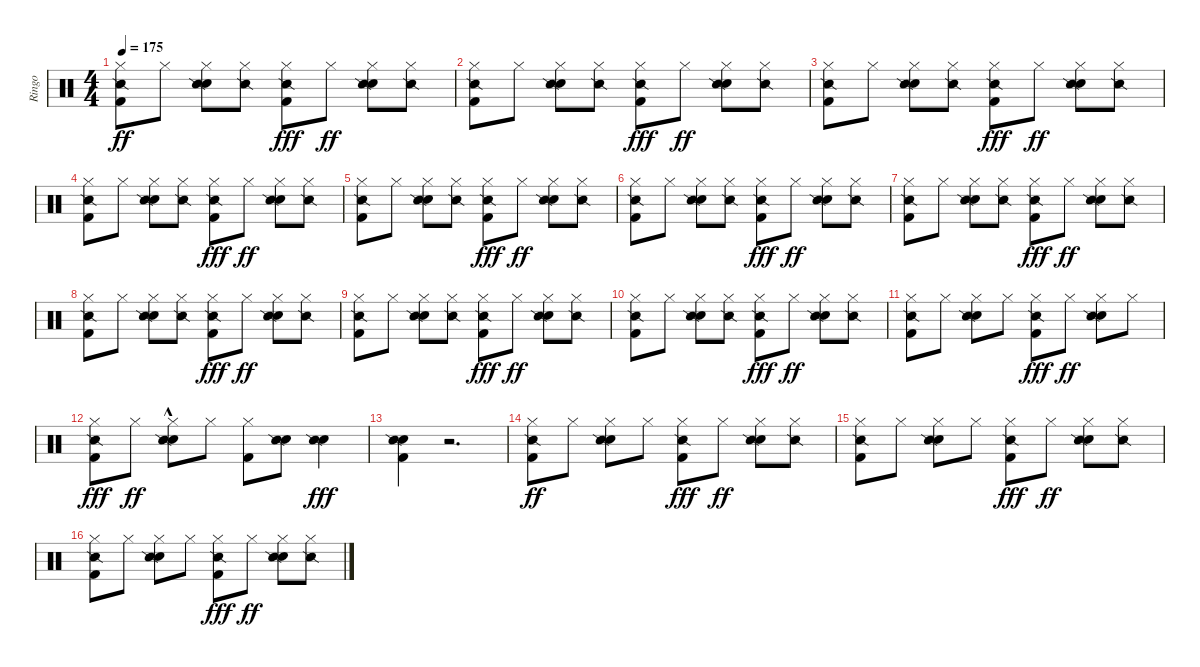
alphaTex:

\track ("Ringo" "Ringo") {instrument percussion}
\staff {score}
\articulation defaults
\ts (4 4)
\tempo 175
\clef neutral
\ks c
("Hi-Hat (closed)" "Snare (side stick) 2" "Kick (hit) 2").8{dy ff} "Hi-Hat (closed)".8 ("Hi-Hat (closed)" "Electric Snare (hit)" "Snare (side stick) 2").8 ("Hi-Hat (closed)" "Snare (side stick) 2").8 ("Hi-Hat (closed)" "Snare (side stick) 2" "Kick (hit) 2").8{dy fff} "Hi-Hat (closed)".8{dy ff} ("Hi-Hat (closed)" "Electric Snare (hit)" "Snare (side stick) 2").8 ("Hi-Hat (closed)" "Snare (side stick) 2").8 |
("Hi-Hat (closed)" "Snare (side stick) 2" "Kick (hit) 2").8 "Hi-Hat (closed)".8 ("Hi-Hat (closed)" "Electric Snare (hit)" "Snare (side stick) 2").8 ("Hi-Hat (closed)" "Snare (side stick) 2").8 ("Hi-Hat (closed)" "Snare (side stick) 2" "Kick (hit) 2").8{dy fff} "Hi-Hat (closed)".8{dy ff} ("Hi-Hat (closed)" "Electric Snare (hit)" "Snare (side stick) 2").8 ("Hi-Hat (closed)" "Snare (side stick) 2").8 |
("Hi-Hat (closed)" "Snare (side stick) 2" "Kick (hit) 2").8 "Hi-Hat (closed)".8 ("Hi-Hat (closed)" "Electric Snare (hit)" "Snare (side stick) 2").8 ("Hi-Hat (closed)" "Snare (side stick) 2").8 ("Hi-Hat (closed)" "Snare (side stick) 2" "Kick (hit) 2").8{dy fff} "Hi-Hat (closed)".8{dy ff} ("Hi-Hat (closed)" "Electric Snare (hit)" "Snare (side stick) 2").8 ("Hi-Hat (closed)" "Snare (side stick) 2").8 |
("Hi-Hat (closed)" "Snare (side stick) 2" "Kick (hit) 2").8 "Hi-Hat (closed)".8 ("Hi-Hat (closed)" "Electric Snare (hit)" "Snare (side stick) 2").8 ("Hi-Hat (closed)" "Snare (side stick) 2").8 ("Hi-Hat (closed)" "Snare (side stick) 2" "Kick (hit) 2").8{dy fff} "Hi-Hat (closed)".8{dy ff} ("Hi-Hat (closed)" "Electric Snare (hit)" "Snare (side stick) 2").8 ("Hi-Hat (closed)" "Snare (side stick) 2").8 |
("Hi-Hat (closed)" "Snare (side stick) 2" "Kick (hit) 2").8 "Hi-Hat (closed)".8 ("Hi-Hat (closed)" "Electric Snare (hit)" "Snare (side stick) 2").8 ("Hi-Hat (closed)" "Snare (side stick) 2").8 ("Hi-Hat (closed)" "Snare (side stick) 2" "Kick (hit) 2").8{dy fff} "Hi-Hat (closed)".8{dy ff} ("Hi-Hat (closed)" "Electric Snare (hit)" "Snare (side stick) 2").8 ("Hi-Hat (closed)" "Snare (side stick) 2").8 |
("Hi-Hat (closed)" "Snare (side stick) 2" "Kick (hit) 2").8 "Hi-Hat (closed)".8 ("Hi-Hat (closed)" "Electric Snare (hit)" "Snare (side stick) 2").8 ("Hi-Hat (closed)" "Snare (side stick) 2").8 ("Hi-Hat (closed)" "Snare (side stick) 2" "Kick (hit) 2").8{dy fff} "Hi-Hat (closed)".8{dy ff} ("Hi-Hat (closed)" "Electric Snare (hit)" "Snare (side stick) 2").8 ("Hi-Hat (closed)" "Snare (side stick) 2").8 |
("Hi-Hat (closed)" "Snare (side stick) 2" "Kick (hit) 2").8 "Hi-Hat (closed)".8 ("Hi-Hat (closed)" "Electric Snare (hit)" "Snare (side stick) 2").8 ("Hi-Hat (closed)" "Snare (side stick) 2").8 ("Hi-Hat (closed)" "Snare (side stick) 2" "Kick (hit) 2").8{dy fff} "Hi-Hat (closed)".8{dy ff} ("Hi-Hat (closed)" "Electric Snare (hit)" "Snare (side stick) 2").8 ("Hi-Hat (closed)" "Snare (side stick) 2").8 |
("Hi-Hat (closed)" "Snare (side stick) 2" "Kick (hit) 2").8 "Hi-Hat (closed)".8 ("Hi-Hat (closed)" "Electric Snare (hit)" "Snare (side stick) 2").8 ("Hi-Hat (closed)" "Snare (side stick) 2").8 ("Hi-Hat (closed)" "Snare (side stick) 2" "Kick (hit) 2").8{dy fff} "Hi-Hat (closed)".8{dy ff} ("Hi-Hat (closed)" "Electric Snare (hit)" "Snare (side stick) 2").8 ("Hi-Hat (closed)" "Snare (side stick) 2").8 |
("Hi-Hat (closed)" "Snare (side stick) 2" "Kick (hit) 2").8 "Hi-Hat (closed)".8 ("Hi-Hat (closed)" "Electric Snare (hit)" "Snare (side stick) 2").8 ("Hi-Hat (closed)" "Snare (side stick) 2").8 ("Hi-Hat (closed)" "Snare (side stick) 2" "Kick (hit) 2").8{dy fff} "Hi-Hat (closed)".8{dy ff} ("Hi-Hat (closed)" "Electric Snare (hit)" "Snare (side stick) 2").8 ("Hi-Hat (closed)" "Snare (side stick) 2").8 |
("Hi-Hat (closed)" "Snare (side stick) 2" "Kick (hit) 2").8 "Hi-Hat (closed)".8 ("Hi-Hat (closed)" "Electric Snare (hit)" "Snare (side stick) 2").8 ("Hi-Hat (closed)" "Snare (side stick) 2").8 ("Hi-Hat (closed)" "Snare (side stick) 2" "Kick (hit) 2").8{dy fff} "Hi-Hat (closed)".8{dy ff} ("Hi-Hat (closed)" "Electric Snare (hit)" "Snare (side stick) 2").8 ("Hi-Hat (closed)" "Snare (side stick) 2").8 |
("Hi-Hat (closed)" "Snare (side stick) 2" "Kick (hit) 2").8 "Hi-Hat (closed)".8 ("Hi-Hat (closed)" "Electric Snare (hit)" "Snare (side stick) 2").8 "Hi-Hat (closed)".8 ("Hi-Hat (closed)" "Snare (side stick) 2" "Kick (hit) 2").8{dy fff} "Hi-Hat (closed)".8{dy ff} ("Hi-Hat (closed)" "Electric Snare (hit)" "Snare (side stick) 2").8 "Hi-Hat (closed)".8 |
("Hi-Hat (closed)" "Snare (side stick) 2" "Kick (hit) 2").8{dy fff} "Hi-Hat (closed)".8{dy ff} ("Hi-Hat (closed)" "Electric Snare (hit)"{hac} "Snare (side stick) 2").8 "Hi-Hat (closed)".8 ("Hi-Hat (closed)" "Kick (hit) 2").8 ("Electric Snare (hit)" "Snare (side stick) 2").8 ("Electric Snare (hit)" "Snare (side stick) 2").4{dy fff} |
("Electric Snare (hit)" "Snare (side stick) 2" "Kick (hit) 2").4 r.2{d} |
("Hi-Hat (closed)" "Snare (side stick) 2" "Kick (hit) 2").8{dy ff} "Hi-Hat (closed)".8 ("Hi-Hat (closed)" "Electric Snare (hit)" "Snare (side stick) 2").8 "Hi-Hat (closed)".8 ("Hi-Hat (closed)" "Snare (side stick) 2" "Kick (hit) 2").8{dy fff} "Hi-Hat (closed)".8{dy ff} ("Hi-Hat (closed)" "Electric Snare (hit)" "Snare (side stick) 2").8 ("Hi-Hat (closed)" "Snare (side stick) 2").8 |
("Hi-Hat (closed)" "Snare (side stick) 2" "Kick (hit) 2").8 "Hi-Hat (closed)".8 ("Hi-Hat (closed)" "Electric Snare (hit)" "Snare (side stick) 2").8 "Hi-Hat (closed)".8 ("Hi-Hat (closed)" "Snare (side stick) 2" "Kick (hit) 2").8{dy fff} "Hi-Hat (closed)".8{dy ff} ("Hi-Hat (closed)" "Electric Snare (hit)" "Snare (side stick) 2").8 ("Hi-Hat (closed)" "Snare (side stick) 2").8 |
("Hi-Hat (closed)" "Snare (side stick) 2" "Kick (hit) 2").8 "Hi-Hat (closed)".8 ("Hi-Hat (closed)" "Electric Snare (hit)" "Snare (side stick) 2").8 "Hi-Hat (closed)".8 ("Hi-Hat (closed)" "Snare (side stick) 2" "Kick (hit) 2").8{dy fff} "Hi-Hat (closed)".8{dy ff} ("Hi-Hat (closed)" "Electric Snare (hit)" "Snare (side stick) 2").8 ("Hi-Hat (closed)" "Snare (side stick) 2").8
